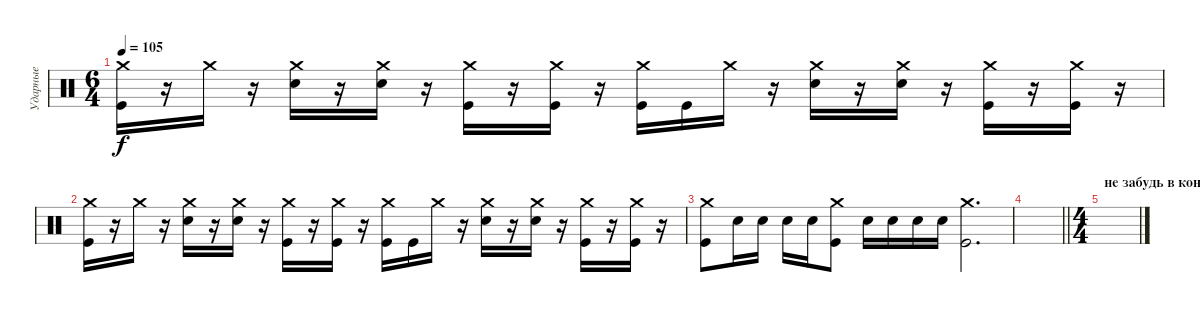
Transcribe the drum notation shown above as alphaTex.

\track ("Ударные" "Ударные") {instrument percussion}
\staff {score}
\articulation defaults
\ts (6 4)
\tempo 105
\clef neutral
\ks c
("Crash medium (hit)" "Kick (hit)").16{dy f} r.16 "Crash medium (hit)".16 r.16 ("Crash medium (hit)" "Electric Snare (hit)").16 r.16 ("Crash medium (hit)" "Electric Snare (hit)").16 r.16 ("Crash medium (hit)" "Kick (hit)").16 r.16 ("Crash medium (hit)" "Kick (hit)").16 r.16 ("Crash medium (hit)" "Kick (hit)").16 "Kick (hit)".16 "Crash medium (hit)".16 r.16 ("Crash medium (hit)" "Electric Snare (hit)").16 r.16 ("Crash medium (hit)" "Electric Snare (hit)").16 r.16 ("Crash medium (hit)" "Kick (hit)").16 r.16 ("Crash medium (hit)" "Kick (hit)").16 r.16 |
("Crash medium (hit)" "Kick (hit)").16 r.16 "Crash medium (hit)".16 r.16 ("Crash medium (hit)" "Electric Snare (hit)").16 r.16 ("Crash medium (hit)" "Electric Snare (hit)").16 r.16 ("Crash medium (hit)" "Kick (hit)").16 r.16 ("Crash medium (hit)" "Kick (hit)").16 r.16 ("Crash medium (hit)" "Kick (hit)").16 "Kick (hit)".16 "Crash medium (hit)".16 r.16 ("Crash medium (hit)" "Electric Snare (hit)").16 r.16 ("Crash medium (hit)" "Electric Snare (hit)").16 r.16 ("Crash medium (hit)" "Kick (hit)").16 r.16 ("Crash medium (hit)" "Kick (hit)").16 r.16 |
("Crash medium (hit)" "Kick (hit)").8 "Electric Snare (hit)".16 "Electric Snare (hit)".16 "Electric Snare (hit)".16 "Electric Snare (hit)".16 ("Crash medium (hit)" "Kick (hit)").8 "Electric Snare (hit)".16 "Electric Snare (hit)".16 "Electric Snare (hit)".16 "Electric Snare (hit)".16 ("Crash medium (hit)" "Kick (hit)").2{d} |
\barLineRight lightlight
|
\ts (4 4)
\section ("" "не забудь в конце про мясо")
